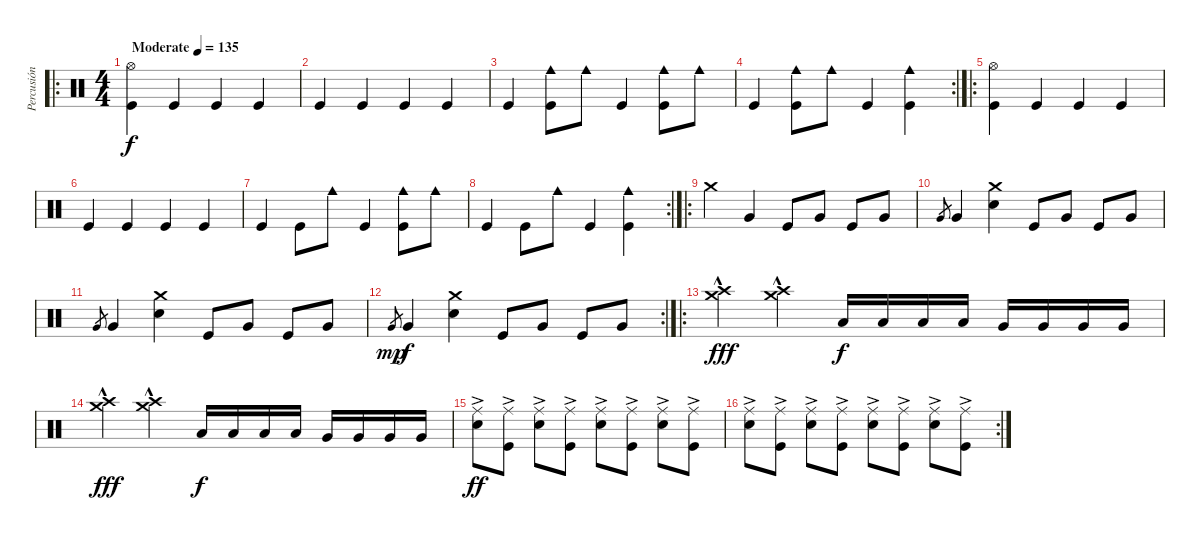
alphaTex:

\track ("Percusión" "Percusión") {instrument percussion}
\staff {score}
\articulation defaults
\ro
\ts (4 4)
\tempo (135 "Moderate")
\clef neutral
\ks c
("Hi-Hat (open)" "Kick (hit)").4{dy f} "Kick (hit)".4 "Kick (hit)".4 "Kick (hit)".4 |
"Kick (hit)".4 "Kick (hit)".4 "Kick (hit)".4 "Kick (hit)".4 |
"Kick (hit)".4 ("Cowbell medium (hit)" "Kick (hit)").8 "Cowbell medium (hit)".8 "Kick (hit)".4 ("Cowbell medium (hit)" "Kick (hit)").8 "Cowbell medium (hit)".8 |
\rc 2 "Kick (hit)".4
("Cowbell medium (hit)" "Kick (hit)").8 "Cowbell medium (hit)".8 "Kick (hit)".4 ("Cowbell medium (hit)" "Kick (hit)").4 |
\ro
("Hi-Hat (open)" "Kick (hit)").4 "Kick (hit)".4 "Kick (hit)".4 "Kick (hit)".4 |
"Kick (hit)".4 "Kick (hit)".4 "Kick (hit)".4 "Kick (hit)".4 |
"Kick (hit)".4 "Kick (hit)".8 "Cowbell medium (hit)".8 "Kick (hit)".4 ("Cowbell medium (hit)" "Kick (hit)").8 "Cowbell medium (hit)".8 |
\rc 2 "Kick (hit)".4 "Kick (hit)".8 "Cowbell medium (hit)".8 "Kick (hit)".4
("Cowbell medium (hit)" "Kick (hit)").4 |
\ro "Crash medium (hit)".4 "Very Low Tom (hit)".4 "Kick (hit)".8 "Very Low Tom (hit)".8 "Kick (hit)".8 "Very Low Tom (hit)".8
|
"Very Low Tom (hit)".8{gr} "Very Low Tom (hit)".4 ("Crash medium (hit)" "Electric Snare (hit)").4 "Kick (hit)".8 "Very Low Tom (hit)".8 "Kick (hit)".8 "Very Low Tom (hit)".8 |
"Very Low Tom (hit)".8{gr} "Very Low Tom (hit)".4 ("Crash medium (hit)" "Electric Snare (hit)").4 "Kick (hit)".8 "Very Low Tom (hit)".8 "Kick (hit)".8 "Very Low Tom (hit)".8 |
\rc 2 "Very Low Tom (hit)".8{gr dy mp} "Very Low Tom (hit)".4{dy f}
("Crash medium (hit)" "Electric Snare (hit)").4 "Kick (hit)".8 "Very Low Tom (hit)".8 "Kick (hit)".8 "Very Low Tom (hit)".8 |
\ro
("Crash high (hit)" "Crash medium (hit)"{hac}).4{dy fff} ("Crash high (hit)" "Crash medium (hit)"{hac}).4 "Low Floor Tom (hit)".16{dy f} "Low Floor Tom (hit)".16 "Low Floor Tom (hit)".16 "Low Floor Tom (hit)".16 "Very Low Tom (hit)".16 "Very Low Tom (hit)".16 "Very Low Tom (hit)".16 "Very Low Tom (hit)".16 |
("Crash high (hit)" "Crash medium (hit)"{hac}).4{dy fff} ("Crash high (hit)" "Crash medium (hit)"{hac}).4 "Low Floor Tom (hit)".16{dy f} "Low Floor Tom (hit)".16 "Low Floor Tom (hit)".16 "Low Floor Tom (hit)".16 "Very Low Tom (hit)".16 "Very Low Tom (hit)".16 "Very Low Tom (hit)".16 "Very Low Tom (hit)".16 |
("Ride (middle)"{ac} "Electric Snare (hit)").8{dy ff} ("Ride (middle)"{ac} "Kick (hit)").8 ("Ride (middle)"{ac} "Electric Snare (hit)").8 ("Ride (middle)"{ac} "Kick (hit)").8 ("Ride (middle)"{ac} "Electric Snare (hit)").8 ("Ride (middle)"{ac} "Kick (hit)").8 ("Ride (middle)"{ac} "Electric Snare (hit)").8 ("Ride (middle)"{ac} "Kick (hit)").8 |
\rc 2
("Ride (middle)"{ac} "Electric Snare (hit)").8 ("Ride (middle)"{ac} "Kick (hit)").8 ("Ride (middle)"{ac} "Electric Snare (hit)").8 ("Ride (middle)"{ac} "Kick (hit)").8 ("Ride (middle)"{ac} "Electric Snare (hit)").8 ("Ride (middle)"{ac} "Kick (hit)").8 ("Ride (middle)"{ac} "Electric Snare (hit)").8 ("Ride (middle)"{ac} "Kick (hit)").8
